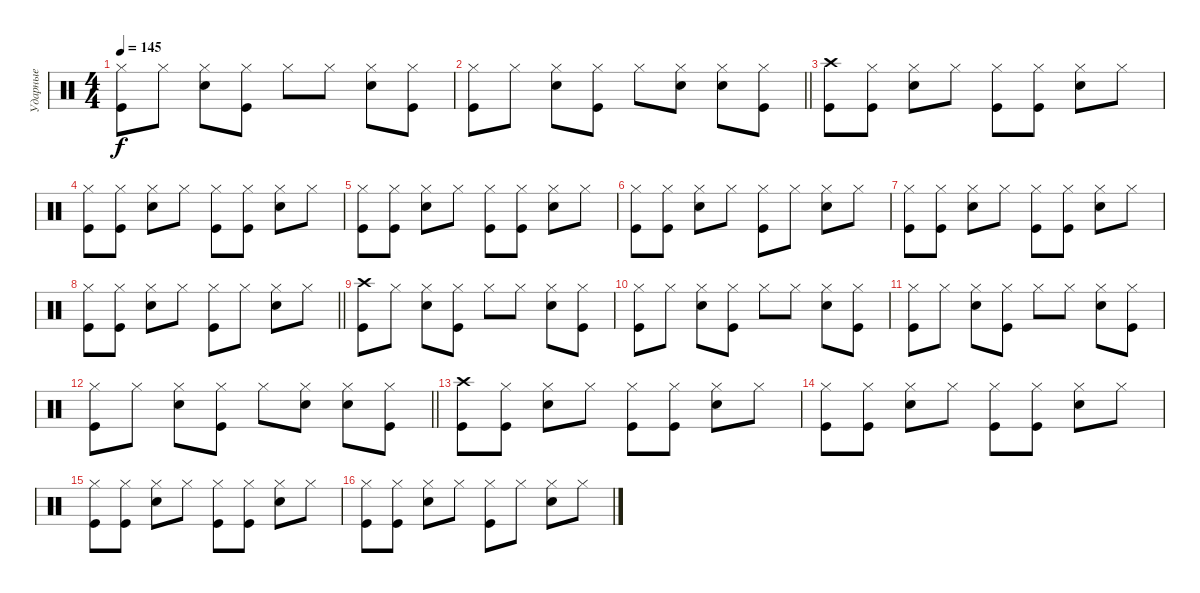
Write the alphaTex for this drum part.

\track ("Ударные" "Ударные") {instrument percussion}
\staff {score}
\articulation defaults
\ts (4 4)
\tempo 145
\clef neutral
\ks c
("Hi-Hat (closed)" "Kick (hit)").8{dy f} "Hi-Hat (closed)".8 ("Hi-Hat (closed)" "Snare (hit) 2").8 ("Hi-Hat (closed)" "Kick (hit)").8 "Hi-Hat (closed)".8 "Hi-Hat (closed)".8 ("Hi-Hat (closed)" "Snare (hit) 2").8 ("Hi-Hat (closed)" "Kick (hit)").8 |
\barLineRight lightlight
("Hi-Hat (closed)" "Kick (hit)").8 "Hi-Hat (closed)".8 ("Hi-Hat (closed)" "Snare (hit) 2").8 ("Hi-Hat (closed)" "Kick (hit)").8 "Hi-Hat (closed)".8 ("Hi-Hat (closed)" "Snare (hit) 2").8 ("Hi-Hat (closed)" "Snare (hit) 2").8 ("Hi-Hat (closed)" "Kick (hit)").8 |
("Crash high (hit)" "Kick (hit)").8 ("Hi-Hat (closed)" "Kick (hit)").8 ("Hi-Hat (closed)" "Snare (hit) 2").8 "Hi-Hat (closed)".8 ("Hi-Hat (closed)" "Kick (hit)").8 ("Hi-Hat (closed)" "Kick (hit)").8 ("Hi-Hat (closed)" "Snare (hit) 2").8 "Hi-Hat (closed)".8 |
("Hi-Hat (closed)" "Kick (hit)").8 ("Hi-Hat (closed)" "Kick (hit)").8 ("Hi-Hat (closed)" "Snare (hit) 2").8 "Hi-Hat (closed)".8 ("Hi-Hat (closed)" "Kick (hit)").8 ("Hi-Hat (closed)" "Kick (hit)").8 ("Hi-Hat (closed)" "Snare (hit) 2").8 "Hi-Hat (closed)".8 |
("Hi-Hat (closed)" "Kick (hit)").8 ("Hi-Hat (closed)" "Kick (hit)").8 ("Hi-Hat (closed)" "Snare (hit) 2").8 "Hi-Hat (closed)".8 ("Hi-Hat (closed)" "Kick (hit)").8 ("Hi-Hat (closed)" "Kick (hit)").8 ("Hi-Hat (closed)" "Snare (hit) 2").8 "Hi-Hat (closed)".8 |
("Hi-Hat (closed)" "Kick (hit)").8 ("Hi-Hat (closed)" "Kick (hit)").8 ("Hi-Hat (closed)" "Snare (hit) 2").8 "Hi-Hat (closed)".8 ("Hi-Hat (closed)" "Kick (hit)").8 "Hi-Hat (closed)".8 ("Hi-Hat (closed)" "Snare (hit) 2").8 "Hi-Hat (closed)".8 |
("Hi-Hat (closed)" "Kick (hit)").8 ("Hi-Hat (closed)" "Kick (hit)").8 ("Hi-Hat (closed)" "Snare (hit) 2").8 "Hi-Hat (closed)".8 ("Hi-Hat (closed)" "Kick (hit)").8 ("Hi-Hat (closed)" "Kick (hit)").8 ("Hi-Hat (closed)" "Snare (hit) 2").8 "Hi-Hat (closed)".8 |
\barLineRight lightlight
("Hi-Hat (closed)" "Kick (hit)").8 ("Hi-Hat (closed)" "Kick (hit)").8 ("Hi-Hat (closed)" "Snare (hit) 2").8 "Hi-Hat (closed)".8 ("Hi-Hat (closed)" "Kick (hit)").8 "Hi-Hat (closed)".8 ("Hi-Hat (closed)" "Snare (hit) 2").8 "Hi-Hat (closed)".8 |
("Crash high (hit)" "Kick (hit)").8 "Hi-Hat (closed)".8 ("Hi-Hat (closed)" "Snare (hit) 2").8 ("Hi-Hat (closed)" "Kick (hit)").8 "Hi-Hat (closed)".8 "Hi-Hat (closed)".8 ("Hi-Hat (closed)" "Snare (hit) 2").8 ("Hi-Hat (closed)" "Kick (hit)").8 |
("Hi-Hat (closed)" "Kick (hit)").8 "Hi-Hat (closed)".8 ("Hi-Hat (closed)" "Snare (hit) 2").8 ("Hi-Hat (closed)" "Kick (hit)").8 "Hi-Hat (closed)".8 "Hi-Hat (closed)".8 ("Hi-Hat (closed)" "Snare (hit) 2").8 ("Hi-Hat (closed)" "Kick (hit)").8 |
("Hi-Hat (closed)" "Kick (hit)").8 "Hi-Hat (closed)".8 ("Hi-Hat (closed)" "Snare (hit) 2").8 ("Hi-Hat (closed)" "Kick (hit)").8 "Hi-Hat (closed)".8 "Hi-Hat (closed)".8 ("Hi-Hat (closed)" "Snare (hit) 2").8 ("Hi-Hat (closed)" "Kick (hit)").8 |
\barLineRight lightlight
("Hi-Hat (closed)" "Kick (hit)").8 "Hi-Hat (closed)".8 ("Hi-Hat (closed)" "Snare (hit) 2").8 ("Hi-Hat (closed)" "Kick (hit)").8 "Hi-Hat (closed)".8 ("Hi-Hat (closed)" "Snare (hit) 2").8 ("Hi-Hat (closed)" "Snare (hit) 2").8 ("Hi-Hat (closed)" "Kick (hit)").8 |
("Crash high (hit)" "Kick (hit)").8 ("Hi-Hat (closed)" "Kick (hit)").8 ("Hi-Hat (closed)" "Snare (hit) 2").8 "Hi-Hat (closed)".8 ("Hi-Hat (closed)" "Kick (hit)").8 ("Hi-Hat (closed)" "Kick (hit)").8 ("Hi-Hat (closed)" "Snare (hit) 2").8 "Hi-Hat (closed)".8 |
("Hi-Hat (closed)" "Kick (hit)").8 ("Hi-Hat (closed)" "Kick (hit)").8 ("Hi-Hat (closed)" "Snare (hit) 2").8 "Hi-Hat (closed)".8 ("Hi-Hat (closed)" "Kick (hit)").8 ("Hi-Hat (closed)" "Kick (hit)").8 ("Hi-Hat (closed)" "Snare (hit) 2").8 "Hi-Hat (closed)".8 |
("Hi-Hat (closed)" "Kick (hit)").8 ("Hi-Hat (closed)" "Kick (hit)").8 ("Hi-Hat (closed)" "Snare (hit) 2").8 "Hi-Hat (closed)".8 ("Hi-Hat (closed)" "Kick (hit)").8 ("Hi-Hat (closed)" "Kick (hit)").8 ("Hi-Hat (closed)" "Snare (hit) 2").8 "Hi-Hat (closed)".8 |
("Hi-Hat (closed)" "Kick (hit)").8 ("Hi-Hat (closed)" "Kick (hit)").8 ("Hi-Hat (closed)" "Snare (hit) 2").8 "Hi-Hat (closed)".8 ("Hi-Hat (closed)" "Kick (hit)").8 "Hi-Hat (closed)".8 ("Hi-Hat (closed)" "Snare (hit) 2").8 "Hi-Hat (closed)".8
